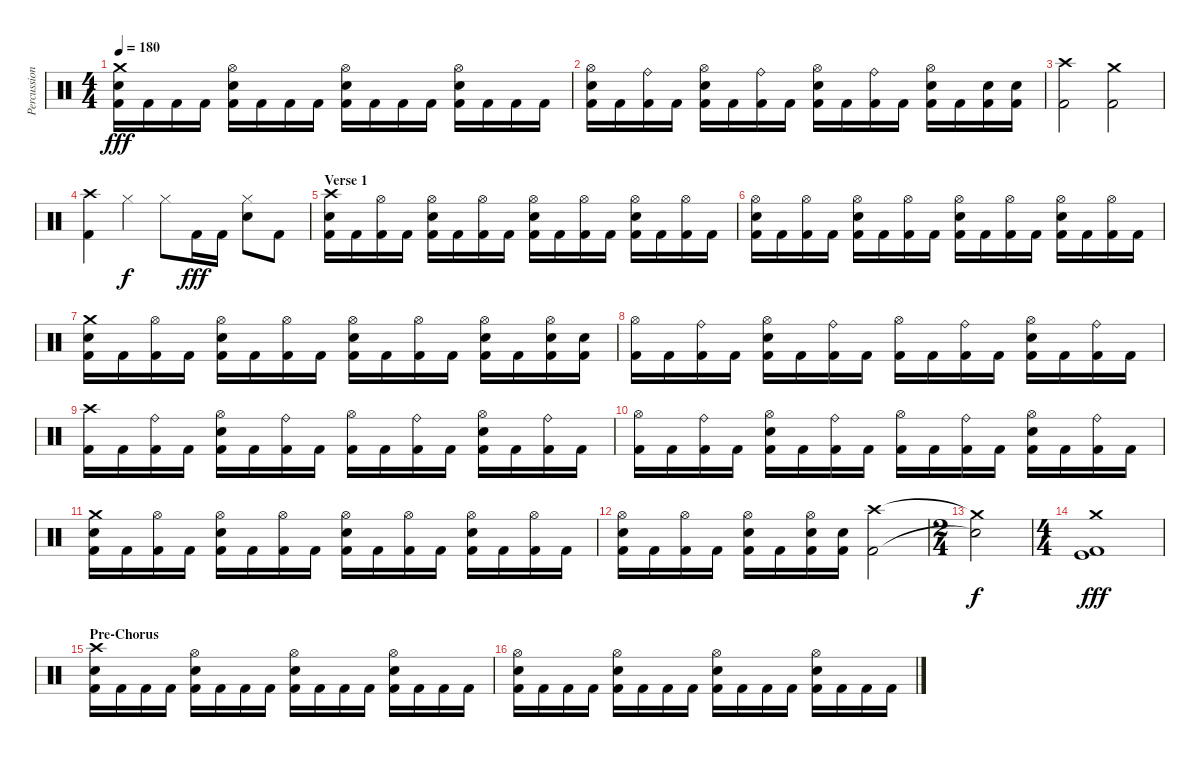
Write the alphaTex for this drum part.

\track ("Percussion" "Percussion") {instrument percussion}
\staff {score}
\articulation defaults
\ts (4 4)
\tempo 180
\clef neutral
\ks c
("Crash medium (hit)" "Snare (hit) 2" "Kick (hit) 2").16{dy fff} "Kick (hit) 2".16 "Kick (hit) 2".16 "Kick (hit) 2".16 ("Hi-Hat (open)" "Snare (hit) 2" "Kick (hit) 2").16 "Kick (hit) 2".16 "Kick (hit) 2".16 "Kick (hit) 2".16 ("Hi-Hat (open)" "Snare (hit) 2" "Kick (hit) 2").16 "Kick (hit) 2".16 "Kick (hit) 2".16 "Kick (hit) 2".16 ("Hi-Hat (open)" "Snare (hit) 2" "Kick (hit) 2").16 "Kick (hit) 2".16 "Kick (hit) 2".16 "Kick (hit) 2".16 |
("Hi-Hat (open)" "Snare (hit) 2" "Kick (hit) 2").16 "Kick (hit) 2".16 ("Ride (bell)" "Kick (hit) 2").16 "Kick (hit) 2".16 ("Hi-Hat (open)" "Snare (hit) 2" "Kick (hit) 2").16 "Kick (hit) 2".16 ("Ride (bell)" "Kick (hit) 2").16 "Kick (hit) 2".16 ("Hi-Hat (open)" "Snare (hit) 2" "Kick (hit) 2").16 "Kick (hit) 2".16 ("Ride (bell)" "Kick (hit) 2").16 "Kick (hit) 2".16 ("Hi-Hat (open)" "Snare (hit) 2" "Kick (hit) 2").16 "Kick (hit) 2".16 ("Snare (hit) 2" "Kick (hit) 2").16 ("Snare (hit) 2" "Kick (hit) 2").16 |
("Crash high (hit)" "Kick (hit) 2").2 ("Crash medium (hit)" "Kick (hit) 2").2 |
("Crash high (hit)" "Kick (hit) 2").4 "Hi-Hat (closed)".4{dy f} "Hi-Hat (closed)".8 "Kick (hit) 2".16{dy fff} "Kick (hit) 2".16 ("Hi-Hat (closed)" "Snare (hit) 2").8 "Kick (hit) 2".8 |
\section ("" "Verse 1")
("Crash high (hit)" "Snare (hit) 2" "Kick (hit) 2").16 "Kick (hit) 2".16 ("Hi-Hat (open)" "Kick (hit) 2").16 "Kick (hit) 2".16 ("Hi-Hat (open)" "Snare (hit) 2" "Kick (hit) 2").16 "Kick (hit) 2".16 ("Hi-Hat (open)" "Kick (hit) 2").16 "Kick (hit) 2".16 ("Hi-Hat (open)" "Snare (hit) 2" "Kick (hit) 2").16 "Kick (hit) 2".16 ("Hi-Hat (open)" "Kick (hit) 2").16 "Kick (hit) 2".16 ("Hi-Hat (open)" "Snare (hit) 2" "Kick (hit) 2").16 "Kick (hit) 2".16 ("Hi-Hat (open)" "Kick (hit) 2").16 "Kick (hit) 2".16 |
("Hi-Hat (open)" "Snare (hit) 2" "Kick (hit) 2").16 "Kick (hit) 2".16 ("Hi-Hat (open)" "Kick (hit) 2").16 "Kick (hit) 2".16 ("Hi-Hat (open)" "Snare (hit) 2" "Kick (hit) 2").16 "Kick (hit) 2".16 ("Hi-Hat (open)" "Kick (hit) 2").16 "Kick (hit) 2".16 ("Hi-Hat (open)" "Snare (hit) 2" "Kick (hit) 2").16 "Kick (hit) 2".16 ("Hi-Hat (open)" "Kick (hit) 2").16 "Kick (hit) 2".16 ("Hi-Hat (open)" "Snare (hit) 2" "Kick (hit) 2").16 "Kick (hit) 2".16 ("Hi-Hat (open)" "Kick (hit) 2").16 "Kick (hit) 2".16 |
("Crash medium (hit)" "Snare (hit) 2" "Kick (hit) 2").16 "Kick (hit) 2".16 ("Hi-Hat (open)" "Kick (hit) 2").16 "Kick (hit) 2".16 ("Hi-Hat (open)" "Snare (hit) 2" "Kick (hit) 2").16 "Kick (hit) 2".16 ("Hi-Hat (open)" "Kick (hit) 2").16 "Kick (hit) 2".16 ("Hi-Hat (open)" "Snare (hit) 2" "Kick (hit) 2").16 "Kick (hit) 2".16 ("Hi-Hat (open)" "Kick (hit) 2").16 "Kick (hit) 2".16 ("Hi-Hat (open)" "Snare (hit) 2" "Kick (hit) 2").16 "Kick (hit) 2".16 ("Hi-Hat (open)" "Snare (hit) 2" "Kick (hit) 2").16 ("Snare (hit) 2" "Kick (hit) 2").16 |
("Hi-Hat (open)" "Kick (hit) 2").16 "Kick (hit) 2".16 ("Ride (bell)" "Kick (hit) 2").16 "Kick (hit) 2".16 ("Hi-Hat (open)" "Snare (hit) 2" "Kick (hit) 2").16 "Kick (hit) 2".16 ("Ride (bell)" "Kick (hit) 2").16 "Kick (hit) 2".16 ("Hi-Hat (open)" "Kick (hit) 2").16 "Kick (hit) 2".16 ("Ride (bell)" "Kick (hit) 2").16 "Kick (hit) 2".16 ("Hi-Hat (open)" "Snare (hit) 2" "Kick (hit) 2").16 "Kick (hit) 2".16 ("Ride (bell)" "Kick (hit) 2").16 "Kick (hit) 2".16 |
("Crash high (hit)" "Kick (hit) 2").16 "Kick (hit) 2".16 ("Ride (bell)" "Kick (hit) 2").16 "Kick (hit) 2".16 ("Hi-Hat (open)" "Snare (hit) 2" "Kick (hit) 2").16 "Kick (hit) 2".16 ("Ride (bell)" "Kick (hit) 2").16 "Kick (hit) 2".16 ("Hi-Hat (open)" "Kick (hit) 2").16 "Kick (hit) 2".16 ("Ride (bell)" "Kick (hit) 2").16 "Kick (hit) 2".16 ("Hi-Hat (open)" "Snare (hit) 2" "Kick (hit) 2").16 "Kick (hit) 2".16 ("Ride (bell)" "Kick (hit) 2").16 "Kick (hit) 2".16 |
("Hi-Hat (open)" "Kick (hit) 2").16 "Kick (hit) 2".16 ("Ride (bell)" "Kick (hit) 2").16 "Kick (hit) 2".16 ("Hi-Hat (open)" "Snare (hit) 2" "Kick (hit) 2").16 "Kick (hit) 2".16 ("Ride (bell)" "Kick (hit) 2").16 "Kick (hit) 2".16 ("Hi-Hat (open)" "Kick (hit) 2").16 "Kick (hit) 2".16 ("Ride (bell)" "Kick (hit) 2").16 "Kick (hit) 2".16 ("Hi-Hat (open)" "Snare (hit) 2" "Kick (hit) 2").16 "Kick (hit) 2".16 ("Ride (bell)" "Kick (hit) 2").16 "Kick (hit) 2".16 |
("Crash medium (hit)" "Snare (hit) 2" "Kick (hit) 2").16 "Kick (hit) 2".16 ("Hi-Hat (open)" "Kick (hit) 2").16 "Kick (hit) 2".16 ("Hi-Hat (open)" "Snare (hit) 2" "Kick (hit) 2").16 "Kick (hit) 2".16 ("Hi-Hat (open)" "Kick (hit) 2").16 "Kick (hit) 2".16 ("Hi-Hat (open)" "Snare (hit) 2" "Kick (hit) 2").16 "Kick (hit) 2".16 ("Hi-Hat (open)" "Kick (hit) 2").16 "Kick (hit) 2".16 ("Hi-Hat (open)" "Snare (hit) 2" "Kick (hit) 2").16 "Kick (hit) 2".16 ("Hi-Hat (open)" "Kick (hit) 2").16 "Kick (hit) 2".16 |
("Hi-Hat (open)" "Snare (hit) 2" "Kick (hit) 2").16 "Kick (hit) 2".16 ("Hi-Hat (open)" "Kick (hit) 2").16 "Kick (hit) 2".16 ("Hi-Hat (open)" "Snare (hit) 2" "Kick (hit) 2").16 "Kick (hit) 2".16 ("Hi-Hat (open)" "Snare (hit) 2" "Kick (hit) 2").16 ("Snare (hit) 2" "Kick (hit) 2").16 ("Crash high (hit)" "Kick (hit) 2").2 |
\ts (2 4)
("Crash medium (hit)"{t} "Snare (hit)"{t}).2{dy f} |
\ts (4 4)
("Crash medium (hit)" "Kick (hit)" "Kick (hit) 2").1{dy fff} |
\section ("" "Pre-Chorus")
("Crash high (hit)" "Snare (hit) 2" "Kick (hit) 2").16 "Kick (hit) 2".16 "Kick (hit) 2".16 "Kick (hit) 2".16 ("Hi-Hat (open)" "Snare (hit) 2" "Kick (hit) 2").16 "Kick (hit) 2".16 "Kick (hit) 2".16 "Kick (hit) 2".16 ("Hi-Hat (open)" "Snare (hit) 2" "Kick (hit) 2").16 "Kick (hit) 2".16 "Kick (hit) 2".16 "Kick (hit) 2".16 ("Hi-Hat (open)" "Snare (hit) 2" "Kick (hit) 2").16 "Kick (hit) 2".16 "Kick (hit) 2".16 "Kick (hit) 2".16 |
("Hi-Hat (open)" "Snare (hit) 2" "Kick (hit) 2").16 "Kick (hit) 2".16 "Kick (hit) 2".16 "Kick (hit) 2".16 ("Hi-Hat (open)" "Snare (hit) 2" "Kick (hit) 2").16 "Kick (hit) 2".16 "Kick (hit) 2".16 "Kick (hit) 2".16 ("Hi-Hat (open)" "Snare (hit) 2" "Kick (hit) 2").16 "Kick (hit) 2".16 "Kick (hit) 2".16 "Kick (hit) 2".16 ("Hi-Hat (open)" "Snare (hit) 2" "Kick (hit) 2").16 "Kick (hit) 2".16 "Kick (hit) 2".16 "Kick (hit) 2".16
